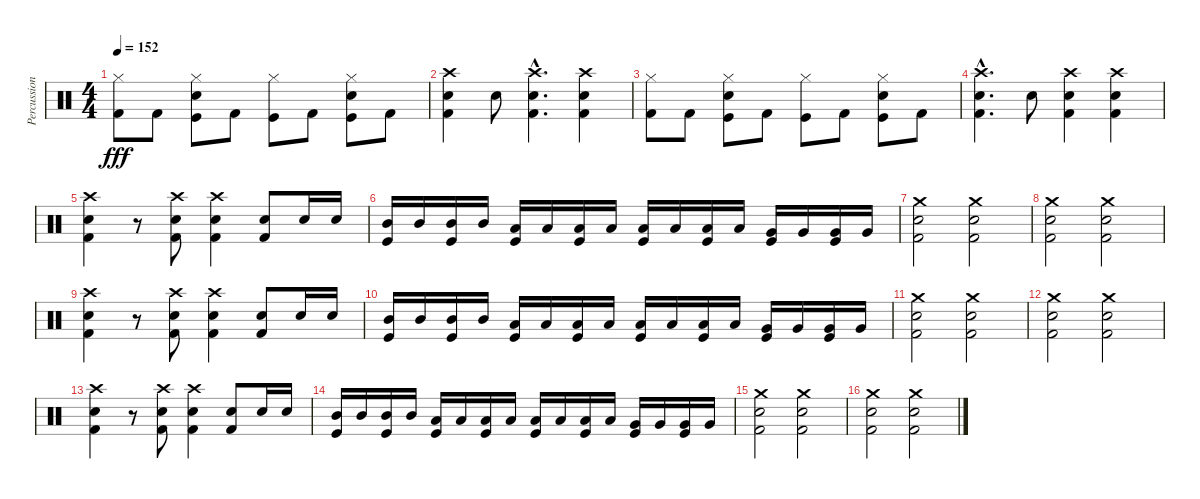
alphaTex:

\track ("Percussions" "Percussion") {instrument percussion}
\staff {score}
\articulation defaults
\ts (4 4)
\tempo 152
\clef neutral
\ks c
("Hi-Hat (closed)" "Kick (hit) 2").8{dy fff} "Kick (hit) 2".8 ("Hi-Hat (closed)" "Snare (hit) 2" "Kick (hit)").8 "Kick (hit) 2".8 ("Hi-Hat (closed)" "Kick (hit)").8 "Kick (hit) 2".8 ("Hi-Hat (closed)" "Snare (hit) 2" "Kick (hit)").8 "Kick (hit) 2".8 |
("Crash high (hit)" "Snare (hit) 2" "Kick (hit) 2").4 "Snare (hit) 2".8 ("Crash high (hit)"{hac} "Snare (hit) 2"{hac} "Kick (hit) 2"{hac}).4{d} ("Crash high (hit)" "Snare (hit) 2" "Kick (hit) 2").4 |
("Hi-Hat (closed)" "Kick (hit) 2").8 "Kick (hit) 2".8 ("Hi-Hat (closed)" "Snare (hit) 2" "Kick (hit)").8 "Kick (hit) 2".8 ("Hi-Hat (closed)" "Kick (hit)").8 "Kick (hit) 2".8 ("Hi-Hat (closed)" "Snare (hit) 2" "Kick (hit)").8 "Kick (hit) 2".8 |
("Crash high (hit)"{hac} "Snare (hit) 2"{hac} "Kick (hit) 2"{hac}).4{d} "Snare (hit) 2".8 ("Crash high (hit)" "Snare (hit) 2" "Kick (hit) 2").4 ("Crash high (hit)" "Snare (hit) 2" "Kick (hit) 2").4 |
("Crash high (hit)" "Snare (hit) 2" "Kick (hit) 2").4 r.8 ("Crash high (hit)" "Snare (hit) 2" "Kick (hit) 2").8 ("Crash high (hit)" "Snare (hit) 2" "Kick (hit) 2").4 ("Snare (hit) 2" "Kick (hit) 2").8 "Snare (hit) 2".16 "Snare (hit) 2".16 |
("Mid Tom (hit)" "Kick (hit)").16 "Mid Tom (hit)".16 ("Mid Tom (hit)" "Kick (hit)").16 "Mid Tom (hit)".16 ("Low Tom (hit)" "Kick (hit)").16 "Low Tom (hit)".16 ("Low Tom (hit)" "Kick (hit)").16 "Low Tom (hit)".16 ("Low Floor Tom (hit)" "Kick (hit)").16 "Low Floor Tom (hit)".16 ("Low Floor Tom (hit)" "Kick (hit)").16 "Low Floor Tom (hit)".16 ("Very Low Tom (hit)" "Kick (hit)").16 "Very Low Tom (hit)".16 ("Very Low Tom (hit)" "Kick (hit)").16 "Very Low Tom (hit)".16 |
("Crash medium (hit)" "Snare (hit) 2" "Kick (hit) 2").2 ("Crash medium (hit)" "Snare (hit) 2" "Kick (hit) 2").2 |
("Crash medium (hit)" "Snare (hit) 2" "Kick (hit) 2").2 ("Crash medium (hit)" "Snare (hit) 2" "Kick (hit) 2").2 |
("Crash high (hit)" "Snare (hit) 2" "Kick (hit) 2").4 r.8 ("Crash high (hit)" "Snare (hit) 2" "Kick (hit) 2").8 ("Crash high (hit)" "Snare (hit) 2" "Kick (hit) 2").4 ("Snare (hit) 2" "Kick (hit) 2").8 "Snare (hit) 2".16 "Snare (hit) 2".16 |
("Mid Tom (hit)" "Kick (hit)").16 "Mid Tom (hit)".16 ("Mid Tom (hit)" "Kick (hit)").16 "Mid Tom (hit)".16 ("Low Tom (hit)" "Kick (hit)").16 "Low Tom (hit)".16 ("Low Tom (hit)" "Kick (hit)").16 "Low Tom (hit)".16 ("Low Floor Tom (hit)" "Kick (hit)").16 "Low Floor Tom (hit)".16 ("Low Floor Tom (hit)" "Kick (hit)").16 "Low Floor Tom (hit)".16 ("Very Low Tom (hit)" "Kick (hit)").16 "Very Low Tom (hit)".16 ("Very Low Tom (hit)" "Kick (hit)").16 "Very Low Tom (hit)".16 |
("Crash medium (hit)" "Snare (hit) 2" "Kick (hit) 2").2 ("Crash medium (hit)" "Snare (hit) 2" "Kick (hit) 2").2 |
("Crash medium (hit)" "Snare (hit) 2" "Kick (hit) 2").2 ("Crash medium (hit)" "Snare (hit) 2" "Kick (hit) 2").2 |
("Crash high (hit)" "Snare (hit) 2" "Kick (hit) 2").4 r.8 ("Crash high (hit)" "Snare (hit) 2" "Kick (hit) 2").8 ("Crash high (hit)" "Snare (hit) 2" "Kick (hit) 2").4 ("Snare (hit) 2" "Kick (hit) 2").8 "Snare (hit) 2".16 "Snare (hit) 2".16 |
("Mid Tom (hit)" "Kick (hit)").16 "Mid Tom (hit)".16 ("Mid Tom (hit)" "Kick (hit)").16 "Mid Tom (hit)".16 ("Low Tom (hit)" "Kick (hit)").16 "Low Tom (hit)".16 ("Low Tom (hit)" "Kick (hit)").16 "Low Tom (hit)".16 ("Low Floor Tom (hit)" "Kick (hit)").16 "Low Floor Tom (hit)".16 ("Low Floor Tom (hit)" "Kick (hit)").16 "Low Floor Tom (hit)".16 ("Very Low Tom (hit)" "Kick (hit)").16 "Very Low Tom (hit)".16 ("Very Low Tom (hit)" "Kick (hit)").16 "Very Low Tom (hit)".16 |
("Crash medium (hit)" "Snare (hit) 2" "Kick (hit) 2").2 ("Crash medium (hit)" "Snare (hit) 2" "Kick (hit) 2").2 |
("Crash medium (hit)" "Snare (hit) 2" "Kick (hit) 2").2 ("Crash medium (hit)" "Snare (hit) 2" "Kick (hit) 2").2
